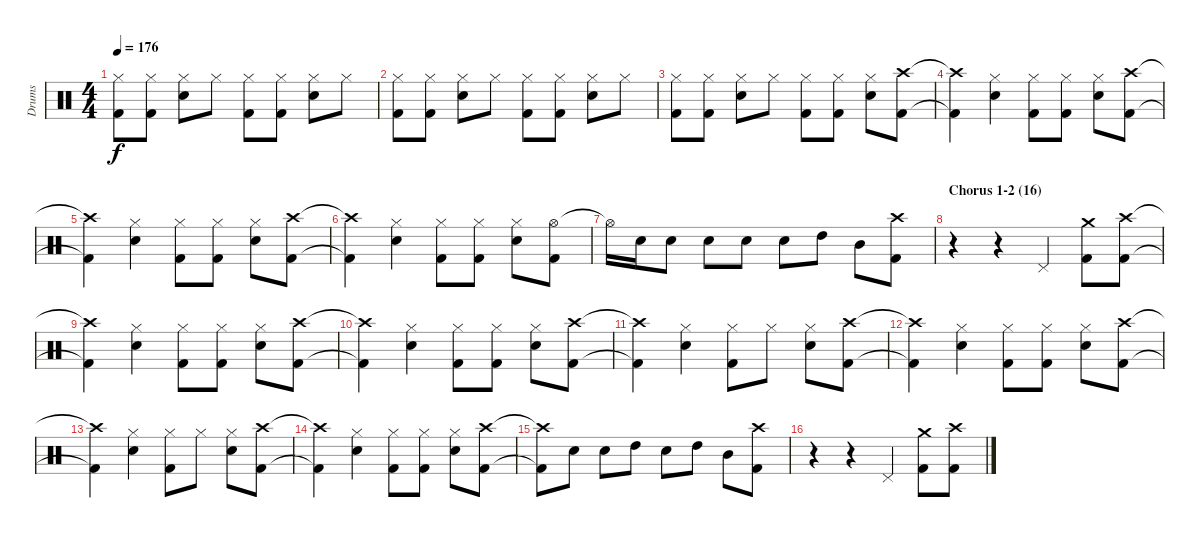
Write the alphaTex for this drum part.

\track ("Drums" "Drums") {instrument percussion}
\staff {score}
\articulation defaults
\ts (4 4)
\tempo 176
\clef neutral
\ks c
("Hi-Hat (closed)" "Kick (hit) 2").8{dy f} ("Hi-Hat (closed)" "Kick (hit) 2").8 ("Hi-Hat (closed)" "Snare (hit) 2").8 "Hi-Hat (closed)".8 ("Hi-Hat (closed)" "Kick (hit) 2").8 ("Hi-Hat (closed)" "Kick (hit) 2").8 ("Hi-Hat (closed)" "Snare (hit) 2").8 "Hi-Hat (closed)".8 |
("Hi-Hat (closed)" "Kick (hit) 2").8 ("Hi-Hat (closed)" "Kick (hit) 2").8 ("Hi-Hat (closed)" "Snare (hit) 2").8 "Hi-Hat (closed)".8 ("Hi-Hat (closed)" "Kick (hit) 2").8 ("Hi-Hat (closed)" "Kick (hit) 2").8 ("Hi-Hat (closed)" "Snare (hit) 2").8 "Hi-Hat (closed)".8 |
("Hi-Hat (closed)" "Kick (hit) 2").8 ("Hi-Hat (closed)" "Kick (hit) 2").8 ("Hi-Hat (closed)" "Snare (hit) 2").8 "Hi-Hat (closed)".8 ("Hi-Hat (closed)" "Kick (hit) 2").8 ("Hi-Hat (closed)" "Kick (hit) 2").8 ("Hi-Hat (closed)" "Snare (hit) 2").8 ("Crash high (hit)" "Kick (hit) 2").8 |
("Crash high (hit)"{t} "Kick (hit) 2"{t}).4 ("Hi-Hat (closed)" "Snare (hit) 2").4 ("Hi-Hat (closed)" "Kick (hit) 2").8 ("Hi-Hat (closed)" "Kick (hit) 2").8 ("Hi-Hat (closed)" "Snare (hit) 2").8 ("Crash high (hit)" "Kick (hit) 2").8 |
("Crash high (hit)"{t} "Kick (hit) 2"{t}).4 ("Hi-Hat (closed)" "Snare (hit) 2").4 ("Hi-Hat (closed)" "Kick (hit) 2").8 ("Hi-Hat (closed)" "Kick (hit) 2").8 ("Hi-Hat (closed)" "Snare (hit) 2").8 ("Crash high (hit)" "Kick (hit) 2").8 |
("Crash high (hit)"{t} "Kick (hit) 2"{t}).4 ("Hi-Hat (closed)" "Snare (hit) 2").4 ("Hi-Hat (closed)" "Kick (hit) 2").8 ("Hi-Hat (closed)" "Kick (hit) 2").8 ("Hi-Hat (closed)" "Snare (hit) 2").8 ("Hi-Hat (open)" "Kick (hit) 2").8 |
"Hi-Hat (open)"{t}.16 "Snare (hit) 2".16 "Snare (hit) 2".8 "Snare (hit) 2".8 "Snare (hit) 2".8 "Snare (hit) 2".8 "High Tom (hit)".8 "Mid Tom (hit)".8 ("Crash high (hit)" "Kick (hit) 2").8 |
\section ("" "Chorus 1-2 (16)")
r.4 r.4 "Pedal Hi-Hat (hit)".4 ("Crash medium (hit)" "Kick (hit) 2").8 ("Crash high (hit)" "Kick (hit) 2").8 |
("Crash high (hit)"{t} "Kick (hit) 2"{t}).4 ("Hi-Hat (closed)" "Snare (hit) 2").4 ("Hi-Hat (closed)" "Kick (hit) 2").8 ("Hi-Hat (closed)" "Kick (hit) 2").8 ("Hi-Hat (closed)" "Snare (hit) 2").8 ("Crash high (hit)" "Kick (hit) 2").8 |
("Crash high (hit)"{t} "Kick (hit) 2"{t}).4 ("Hi-Hat (closed)" "Snare (hit) 2").4 ("Hi-Hat (closed)" "Kick (hit) 2").8 ("Hi-Hat (closed)" "Kick (hit) 2").8 ("Hi-Hat (closed)" "Snare (hit) 2").8 ("Crash high (hit)" "Kick (hit) 2").8 |
("Crash high (hit)"{t} "Kick (hit) 2"{t}).4 ("Hi-Hat (closed)" "Snare (hit) 2").4 ("Hi-Hat (closed)" "Kick (hit) 2").8 "Hi-Hat (closed)".8 ("Hi-Hat (closed)" "Snare (hit) 2").8 ("Crash high (hit)" "Kick (hit) 2").8 |
("Crash high (hit)"{t} "Kick (hit) 2"{t}).4 ("Hi-Hat (closed)" "Snare (hit) 2").4 ("Hi-Hat (closed)" "Kick (hit) 2").8 ("Hi-Hat (closed)" "Kick (hit) 2").8 ("Hi-Hat (closed)" "Snare (hit) 2").8 ("Crash high (hit)" "Kick (hit) 2").8 |
("Crash high (hit)"{t} "Kick (hit) 2"{t}).4 ("Hi-Hat (closed)" "Snare (hit) 2").4 ("Hi-Hat (closed)" "Kick (hit) 2").8 "Hi-Hat (closed)".8 ("Hi-Hat (closed)" "Snare (hit) 2").8 ("Crash high (hit)" "Kick (hit) 2").8 |
("Crash high (hit)"{t} "Kick (hit) 2"{t}).4 ("Hi-Hat (closed)" "Snare (hit) 2").4 ("Hi-Hat (closed)" "Kick (hit) 2").8 ("Hi-Hat (closed)" "Kick (hit) 2").8 ("Hi-Hat (closed)" "Snare (hit) 2").8 ("Crash high (hit)" "Kick (hit) 2").8 |
("Crash high (hit)"{t} "Kick (hit) 2"{t}).8 "Snare (hit) 2".8 "Snare (hit) 2".8 "High Tom (hit)".8 "Snare (hit) 2".8 "High Tom (hit)".8 "Mid Tom (hit)".8 ("Crash high (hit)" "Kick (hit) 2").8 |
r.4 r.4 "Pedal Hi-Hat (hit)".4 ("Crash medium (hit)" "Kick (hit) 2").8 ("Crash high (hit)" "Kick (hit) 2").8
